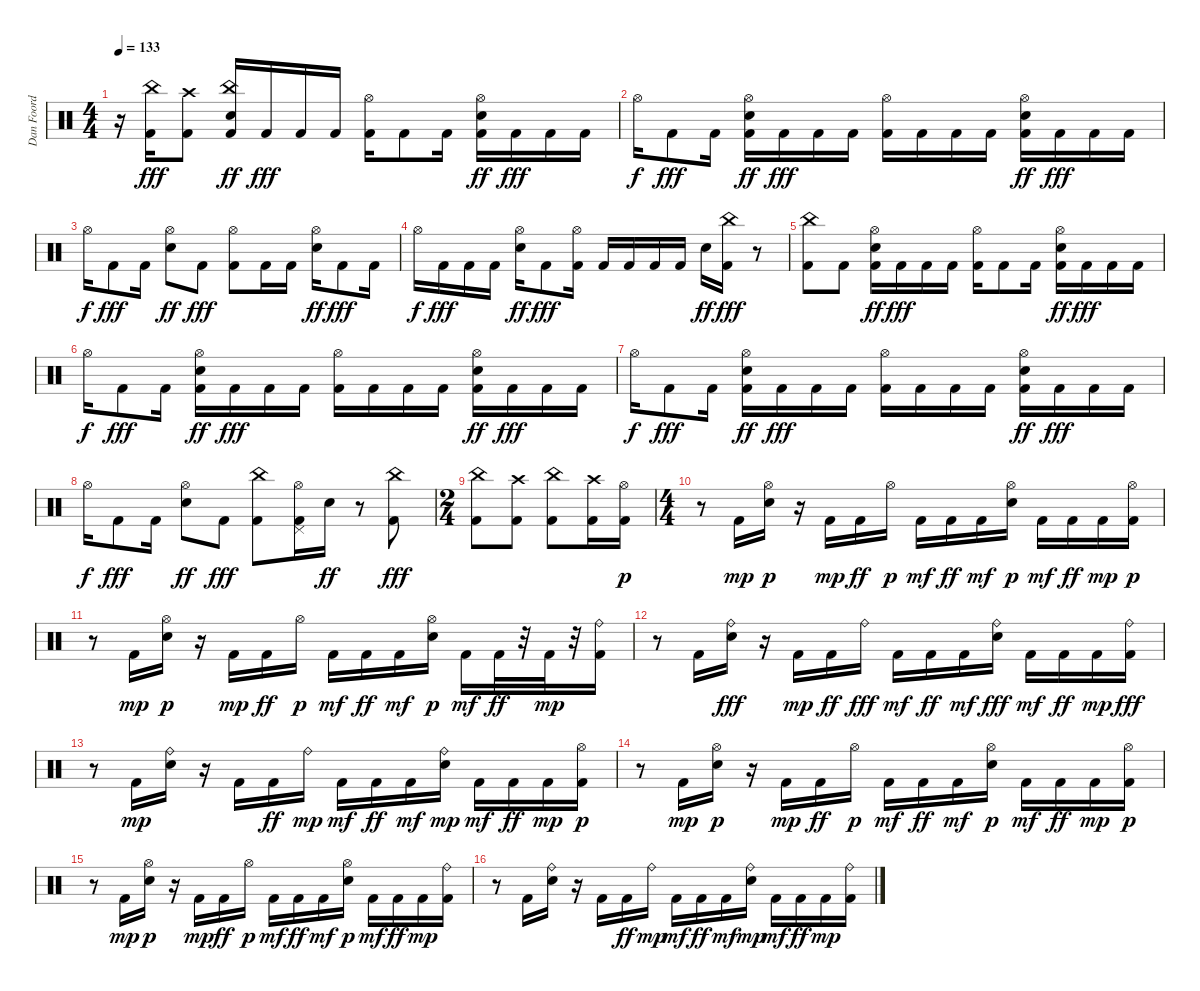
\track ("Dan Foord 2" "Dan Foord ") {instrument percussion}
\staff {score}
\articulation defaults
\ts (4 4)
\tempo 133
\clef neutral
\ks c
r.16{dy fff} ("Kick (hit) 2" "China (hit)").16 ("Kick (hit) 2" "Crash high (hit)").8 ("Kick (hit) 2" "Snare (hit) 2" "China (hit)").16{dy ff} "Kick (hit) 2".16{dy fff} "Kick (hit) 2".16 "Kick (hit) 2".16 ("Kick (hit) 2" "Hi-Hat (open)").16 "Kick (hit) 2".8 "Kick (hit) 2".16 ("Kick (hit) 2" "Snare (hit) 2" "Hi-Hat (open)").16{dy ff} "Kick (hit) 2".16{dy fff} "Kick (hit) 2".16 "Kick (hit) 2".16 |
"Hi-Hat (open)".16{dy f} "Kick (hit) 2".8{dy fff} "Kick (hit) 2".16 ("Kick (hit) 2" "Snare (hit) 2" "Hi-Hat (open)").16{dy ff} "Kick (hit) 2".16{dy fff} "Kick (hit) 2".16 "Kick (hit) 2".16 ("Kick (hit) 2" "Hi-Hat (open)").16 "Kick (hit) 2".16 "Kick (hit) 2".16 "Kick (hit) 2".16 ("Kick (hit) 2" "Snare (hit) 2" "Hi-Hat (open)").16{dy ff} "Kick (hit) 2".16{dy fff} "Kick (hit) 2".16 "Kick (hit) 2".16 |
"Hi-Hat (open)".16{dy f} "Kick (hit) 2".8{dy fff} "Kick (hit) 2".16 ("Snare (hit) 2" "Hi-Hat (open)").8{dy ff} "Kick (hit) 2".8{dy fff} ("Kick (hit) 2" "Hi-Hat (open)").8 "Kick (hit) 2".16 "Kick (hit) 2".16 ("Snare (hit) 2" "Hi-Hat (open)").16{dy ff} "Kick (hit) 2".8{dy fff} "Kick (hit) 2".16 |
"Hi-Hat (open)".16{dy f} "Kick (hit) 2".16{dy fff} "Kick (hit) 2".16 "Kick (hit) 2".16 ("Snare (hit) 2" "Hi-Hat (open)").16{dy ff} "Kick (hit) 2".8{dy fff} ("Kick (hit) 2" "Hi-Hat (open)").16 "Kick (hit) 2".16 "Kick (hit) 2".16 "Kick (hit) 2".16 "Kick (hit) 2".16 "Snare (hit) 2".16{dy ff} ("Kick (hit) 2" "China (hit)").16{dy fff} r.8 |
("Kick (hit) 2" "China (hit)").8 "Kick (hit) 2".8 ("Kick (hit) 2" "Snare (hit) 2" "Hi-Hat (open)").16{dy ff} "Kick (hit) 2".16{dy fff} "Kick (hit) 2".16 "Kick (hit) 2".16 ("Kick (hit) 2" "Hi-Hat (open)").16 "Kick (hit) 2".8 "Kick (hit) 2".16 ("Kick (hit) 2" "Snare (hit) 2" "Hi-Hat (open)").16{dy ff} "Kick (hit) 2".16{dy fff} "Kick (hit) 2".16 "Kick (hit) 2".16 |
"Hi-Hat (open)".16{dy f} "Kick (hit) 2".8{dy fff} "Kick (hit) 2".16 ("Kick (hit) 2" "Snare (hit) 2" "Hi-Hat (open)").16{dy ff} "Kick (hit) 2".16{dy fff} "Kick (hit) 2".16 "Kick (hit) 2".16 ("Kick (hit) 2" "Hi-Hat (open)").16 "Kick (hit) 2".16 "Kick (hit) 2".16 "Kick (hit) 2".16 ("Kick (hit) 2" "Snare (hit) 2" "Hi-Hat (open)").16{dy ff} "Kick (hit) 2".16{dy fff} "Kick (hit) 2".16 "Kick (hit) 2".16 |
"Hi-Hat (open)".16{dy f} "Kick (hit) 2".8{dy fff} "Kick (hit) 2".16 ("Kick (hit) 2" "Snare (hit) 2" "Hi-Hat (open)").16{dy ff} "Kick (hit) 2".16{dy fff} "Kick (hit) 2".16 "Kick (hit) 2".16 ("Kick (hit) 2" "Hi-Hat (open)").16 "Kick (hit) 2".16 "Kick (hit) 2".16 "Kick (hit) 2".16 ("Kick (hit) 2" "Snare (hit) 2" "Hi-Hat (open)").16{dy ff} "Kick (hit) 2".16{dy fff} "Kick (hit) 2".16 "Kick (hit) 2".16 |
"Hi-Hat (open)".16{dy f} "Kick (hit) 2".8{dy fff} "Kick (hit) 2".16 ("Snare (hit) 2" "Hi-Hat (open)").8{dy ff} "Kick (hit) 2".8{dy fff} ("Kick (hit) 2" "China (hit)").8 ("Kick (hit) 2" "Pedal Hi-Hat (hit)" "Hi-Hat (open)").16 "Snare (hit) 2".16{dy ff} r.8 ("Kick (hit) 2" "China (hit)").8{dy fff} |
\ts (2 4)
("Kick (hit) 2" "China (hit)").8 ("Kick (hit) 2" "Crash high (hit)").8 ("Kick (hit) 2" "China (hit)").8 ("Kick (hit) 2" "Crash high (hit)").16 ("Kick (hit) 2" "Hi-Hat (open)").16{dy p} |
\ts (4 4)
r.8 "Kick (hit) 2".16{dy mp} ("Snare (hit) 2" "Hi-Hat (open)").16{dy p} r.16 "Kick (hit) 2".16{dy mp} "Kick (hit) 2".16{dy ff} "Hi-Hat (open)".16{dy p} "Kick (hit) 2".16{dy mf} "Kick (hit) 2".16{dy ff} "Kick (hit) 2".16{dy mf} ("Snare (hit) 2" "Hi-Hat (open)").16{dy p} "Kick (hit) 2".16{dy mf} "Kick (hit) 2".16{dy ff} "Kick (hit) 2".16{dy mp} ("Kick (hit) 2" "Hi-Hat (open)").16{dy p} |
r.8 "Kick (hit) 2".16{dy mp} ("Snare (hit) 2" "Hi-Hat (open)").16{dy p} r.16 "Kick (hit) 2".16{dy mp} "Kick (hit) 2".16{dy ff} "Hi-Hat (open)".16{dy p} "Kick (hit) 2".16{dy mf} "Kick (hit) 2".16{dy ff} "Kick (hit) 2".16{dy mf} ("Snare (hit) 2" "Hi-Hat (open)").16{dy p} "Kick (hit) 2".16{dy mf} "Kick (hit) 2".32{dy ff} r.32 "Kick (hit) 2".32{dy mp} r.32 ("Kick (hit) 2" "Ride (bell)").16 |
r.8 "Kick (hit) 2".16 ("Snare (hit) 2" "Ride (bell)").16{dy fff} r.16 "Kick (hit) 2".16{dy mp} "Kick (hit) 2".16{dy ff} "Ride (bell)".16{dy fff} "Kick (hit) 2".16{dy mf} "Kick (hit) 2".16{dy ff} "Kick (hit) 2".16{dy mf} ("Snare (hit) 2" "Ride (bell)").16{dy fff} "Kick (hit) 2".16{dy mf} "Kick (hit) 2".16{dy ff} "Kick (hit) 2".16{dy mp} ("Kick (hit) 2" "Ride (bell)").16{dy fff} |
r.8 "Kick (hit) 2".16{dy mp} ("Snare (hit) 2" "Ride (bell)").16 r.16 "Kick (hit) 2".16 "Kick (hit) 2".16{dy ff} "Ride (bell)".16{dy mp} "Kick (hit) 2".16{dy mf} "Kick (hit) 2".16{dy ff} "Kick (hit) 2".16{dy mf} ("Snare (hit) 2" "Ride (bell)").16{dy mp} "Kick (hit) 2".16{dy mf} "Kick (hit) 2".16{dy ff} "Kick (hit) 2".16{dy mp} ("Kick (hit) 2" "Hi-Hat (open)").16{dy p} |
r.8 "Kick (hit) 2".16{dy mp} ("Snare (hit) 2" "Hi-Hat (open)").16{dy p} r.16 "Kick (hit) 2".16{dy mp} "Kick (hit) 2".16{dy ff} "Hi-Hat (open)".16{dy p} "Kick (hit) 2".16{dy mf} "Kick (hit) 2".16{dy ff} "Kick (hit) 2".16{dy mf} ("Snare (hit) 2" "Hi-Hat (open)").16{dy p} "Kick (hit) 2".16{dy mf} "Kick (hit) 2".16{dy ff} "Kick (hit) 2".16{dy mp} ("Kick (hit) 2" "Hi-Hat (open)").16{dy p} |
r.8 "Kick (hit) 2".16{dy mp} ("Snare (hit) 2" "Hi-Hat (open)").16{dy p} r.16 "Kick (hit) 2".16{dy mp} "Kick (hit) 2".16{dy ff} "Hi-Hat (open)".16{dy p} "Kick (hit) 2".16{dy mf} "Kick (hit) 2".16{dy ff} "Kick (hit) 2".16{dy mf} ("Snare (hit) 2" "Hi-Hat (open)").16{dy p} "Kick (hit) 2".16{dy mf} "Kick (hit) 2".16{dy ff} "Kick (hit) 2".16{dy mp} ("Kick (hit) 2" "Ride (bell)").16 |
r.8 "Kick (hit) 2".16 ("Snare (hit) 2" "Ride (bell)").16 r.16 "Kick (hit) 2".16 "Kick (hit) 2".16{dy ff} "Ride (bell)".16{dy mp} "Kick (hit) 2".16{dy mf} "Kick (hit) 2".16{dy ff} "Kick (hit) 2".16{dy mf} ("Snare (hit) 2" "Ride (bell)").16{dy mp} "Kick (hit) 2".16{dy mf} "Kick (hit) 2".16{dy ff} "Kick (hit) 2".16{dy mp} ("Kick (hit) 2" "Ride (bell)").16
